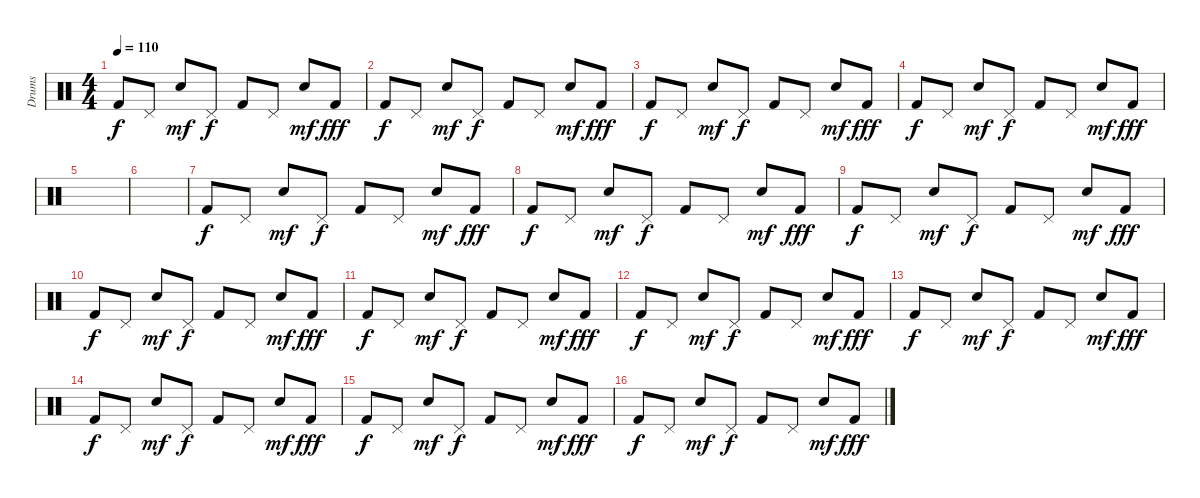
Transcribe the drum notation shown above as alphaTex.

\track ("Drums" "Drums") {instrument percussion}
\staff {score}
\articulation defaults
\ts (4 4)
\tempo 110
\clef neutral
\ks c "Kick (hit) 2".8{dy f} "Pedal Hi-Hat (hit)".8 "Electric Snare (hit)".8{dy mf} "Pedal Hi-Hat (hit)".8{dy f} "Kick (hit) 2".8 "Pedal Hi-Hat (hit)".8 "Electric Snare (hit)".8{dy mf} "Kick (hit) 2".8{dy fff}
|
"Kick (hit) 2".8{dy f} "Pedal Hi-Hat (hit)".8 "Electric Snare (hit)".8{dy mf} "Pedal Hi-Hat (hit)".8{dy f} "Kick (hit) 2".8 "Pedal Hi-Hat (hit)".8 "Electric Snare (hit)".8{dy mf} "Kick (hit) 2".8{dy fff} |
"Kick (hit) 2".8{dy f} "Pedal Hi-Hat (hit)".8 "Electric Snare (hit)".8{dy mf} "Pedal Hi-Hat (hit)".8{dy f} "Kick (hit) 2".8 "Pedal Hi-Hat (hit)".8 "Electric Snare (hit)".8{dy mf} "Kick (hit) 2".8{dy fff} |
"Kick (hit) 2".8{dy f} "Pedal Hi-Hat (hit)".8 "Electric Snare (hit)".8{dy mf} "Pedal Hi-Hat (hit)".8{dy f} "Kick (hit) 2".8 "Pedal Hi-Hat (hit)".8 "Electric Snare (hit)".8{dy mf} "Kick (hit) 2".8{dy fff} |
|
|
"Kick (hit) 2".8{dy f} "Pedal Hi-Hat (hit)".8 "Electric Snare (hit)".8{dy mf} "Pedal Hi-Hat (hit)".8{dy f} "Kick (hit) 2".8 "Pedal Hi-Hat (hit)".8 "Electric Snare (hit)".8{dy mf} "Kick (hit) 2".8{dy fff} |
"Kick (hit) 2".8{dy f} "Pedal Hi-Hat (hit)".8 "Electric Snare (hit)".8{dy mf} "Pedal Hi-Hat (hit)".8{dy f} "Kick (hit) 2".8 "Pedal Hi-Hat (hit)".8 "Electric Snare (hit)".8{dy mf} "Kick (hit) 2".8{dy fff} |
"Kick (hit) 2".8{dy f} "Pedal Hi-Hat (hit)".8 "Electric Snare (hit)".8{dy mf} "Pedal Hi-Hat (hit)".8{dy f} "Kick (hit) 2".8 "Pedal Hi-Hat (hit)".8 "Electric Snare (hit)".8{dy mf} "Kick (hit) 2".8{dy fff} |
"Kick (hit) 2".8{dy f} "Pedal Hi-Hat (hit)".8 "Electric Snare (hit)".8{dy mf} "Pedal Hi-Hat (hit)".8{dy f} "Kick (hit) 2".8 "Pedal Hi-Hat (hit)".8 "Electric Snare (hit)".8{dy mf} "Kick (hit) 2".8{dy fff} |
"Kick (hit) 2".8{dy f} "Pedal Hi-Hat (hit)".8 "Electric Snare (hit)".8{dy mf} "Pedal Hi-Hat (hit)".8{dy f} "Kick (hit) 2".8 "Pedal Hi-Hat (hit)".8 "Electric Snare (hit)".8{dy mf} "Kick (hit) 2".8{dy fff} |
"Kick (hit) 2".8{dy f} "Pedal Hi-Hat (hit)".8 "Electric Snare (hit)".8{dy mf} "Pedal Hi-Hat (hit)".8{dy f} "Kick (hit) 2".8 "Pedal Hi-Hat (hit)".8 "Electric Snare (hit)".8{dy mf} "Kick (hit) 2".8{dy fff} |
"Kick (hit) 2".8{dy f} "Pedal Hi-Hat (hit)".8 "Electric Snare (hit)".8{dy mf} "Pedal Hi-Hat (hit)".8{dy f} "Kick (hit) 2".8 "Pedal Hi-Hat (hit)".8 "Electric Snare (hit)".8{dy mf} "Kick (hit) 2".8{dy fff} |
"Kick (hit) 2".8{dy f} "Pedal Hi-Hat (hit)".8 "Electric Snare (hit)".8{dy mf} "Pedal Hi-Hat (hit)".8{dy f} "Kick (hit) 2".8 "Pedal Hi-Hat (hit)".8 "Electric Snare (hit)".8{dy mf} "Kick (hit) 2".8{dy fff} |
"Kick (hit) 2".8{dy f} "Pedal Hi-Hat (hit)".8 "Electric Snare (hit)".8{dy mf} "Pedal Hi-Hat (hit)".8{dy f} "Kick (hit) 2".8 "Pedal Hi-Hat (hit)".8 "Electric Snare (hit)".8{dy mf} "Kick (hit) 2".8{dy fff} |
"Kick (hit) 2".8{dy f} "Pedal Hi-Hat (hit)".8 "Electric Snare (hit)".8{dy mf} "Pedal Hi-Hat (hit)".8{dy f} "Kick (hit) 2".8 "Pedal Hi-Hat (hit)".8 "Electric Snare (hit)".8{dy mf} "Kick (hit) 2".8{dy fff}
